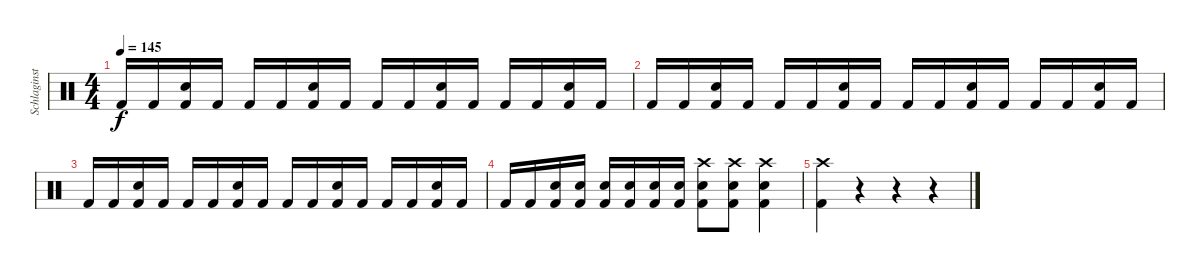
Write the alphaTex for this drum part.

\track ("Schlaginstrumente - Auswahl" "Schlaginst") {instrument percussion}
\staff {score}
\articulation defaults
\ts (4 4)
\tempo 145
\clef neutral
\ks c "Kick (hit) 2".16{dy f} "Kick (hit) 2".16
("Snare (hit) 2" "Kick (hit) 2").16 "Kick (hit) 2".16 "Kick (hit) 2".16 "Kick (hit) 2".16 ("Snare (hit) 2" "Kick (hit) 2").16 "Kick (hit) 2".16 "Kick (hit) 2".16 "Kick (hit) 2".16 ("Snare (hit) 2" "Kick (hit) 2").16 "Kick (hit) 2".16 "Kick (hit) 2".16 "Kick (hit) 2".16 ("Snare (hit) 2" "Kick (hit) 2").16 "Kick (hit) 2".16 |
"Kick (hit) 2".16 "Kick (hit) 2".16 ("Snare (hit) 2" "Kick (hit) 2").16 "Kick (hit) 2".16 "Kick (hit) 2".16 "Kick (hit) 2".16 ("Snare (hit) 2" "Kick (hit) 2").16 "Kick (hit) 2".16 "Kick (hit) 2".16 "Kick (hit) 2".16 ("Snare (hit) 2" "Kick (hit) 2").16 "Kick (hit) 2".16 "Kick (hit) 2".16 "Kick (hit) 2".16 ("Snare (hit) 2" "Kick (hit) 2").16 "Kick (hit) 2".16 |
"Kick (hit) 2".16 "Kick (hit) 2".16 ("Snare (hit) 2" "Kick (hit) 2").16 "Kick (hit) 2".16 "Kick (hit) 2".16 "Kick (hit) 2".16 ("Snare (hit) 2" "Kick (hit) 2").16 "Kick (hit) 2".16 "Kick (hit) 2".16 "Kick (hit) 2".16 ("Snare (hit) 2" "Kick (hit) 2").16 "Kick (hit) 2".16 "Kick (hit) 2".16 "Kick (hit) 2".16 ("Snare (hit) 2" "Kick (hit) 2").16 "Kick (hit) 2".16 |
"Kick (hit) 2".16 "Kick (hit) 2".16 ("Snare (hit) 2" "Kick (hit) 2").16 ("Snare (hit) 2" "Kick (hit) 2").16 ("Snare (hit) 2" "Kick (hit) 2").16 ("Snare (hit) 2" "Kick (hit) 2").16 ("Snare (hit) 2" "Kick (hit) 2").16 ("Snare (hit) 2" "Kick (hit) 2").16 ("Crash high (hit)" "Snare (hit) 2" "Kick (hit) 2").8 ("Crash high (hit)" "Snare (hit) 2" "Kick (hit) 2").8 ("Crash high (hit)" "Snare (hit) 2" "Kick (hit) 2").4 |
("Crash high (hit)" "Kick (hit) 2").4 r.4 r.4 r.4
